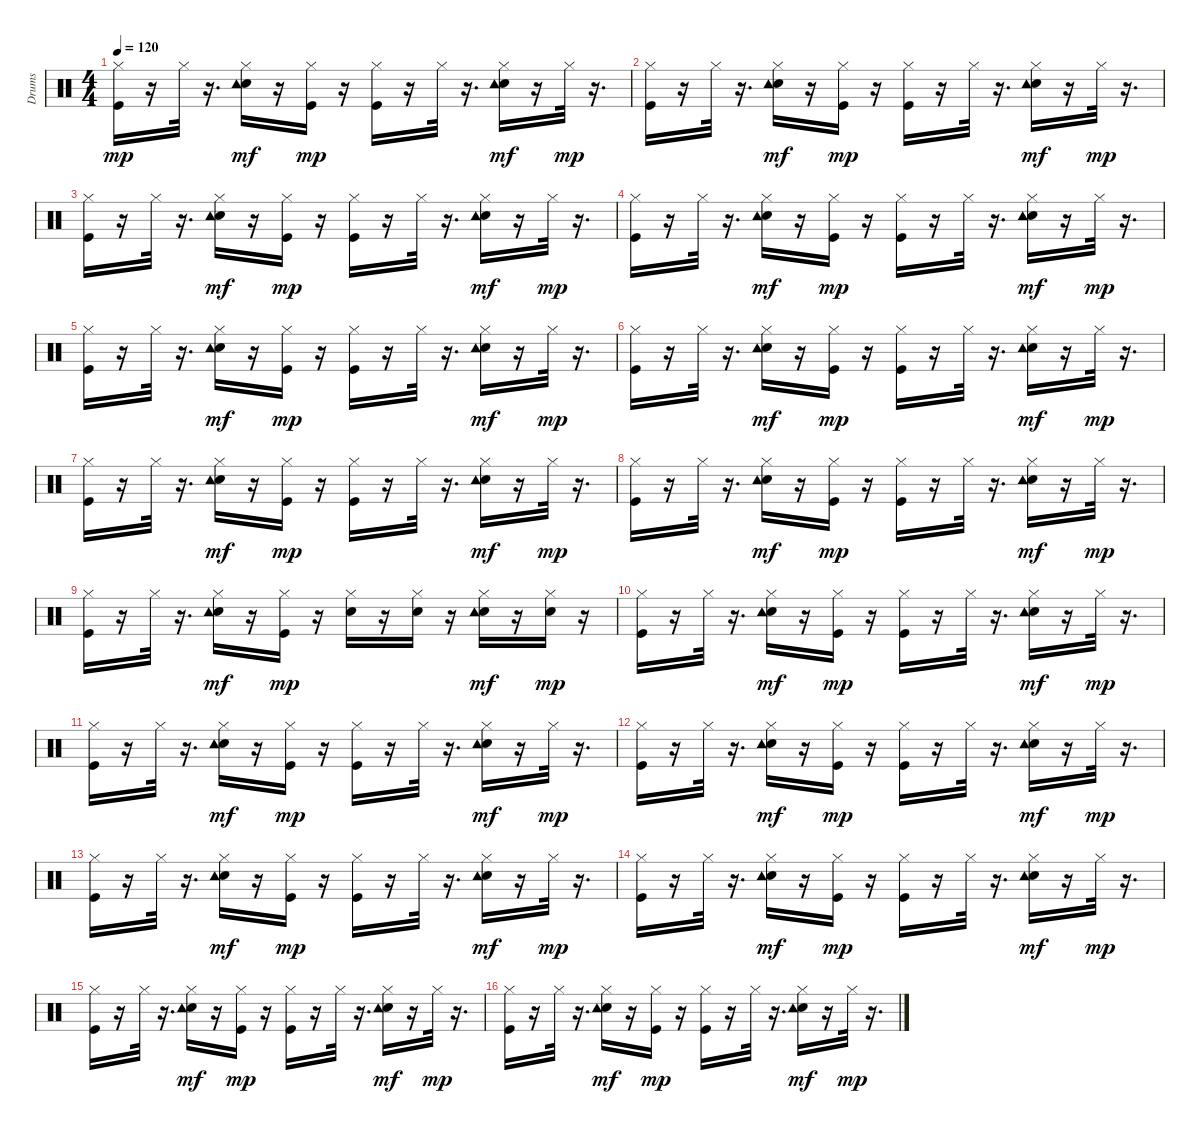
\track ("Drums" "Drums") {instrument percussion}
\staff {score}
\articulation defaults
\ts (4 4)
\tempo 120
\clef neutral
\ks c
("Kick (hit)" "Hi-Hat (closed)").16{dy mp} r.16 "Hi-Hat (closed)".32 r.16{d} ("Electric Snare (hit)" "Hi-Hat (closed)" "Tambourine (hit)").16{dy mf} r.16 ("Kick (hit)" "Hi-Hat (closed)").16{dy mp} r.16 ("Kick (hit)" "Hi-Hat (closed)").16 r.16 "Hi-Hat (closed)".32 r.16{d} ("Electric Snare (hit)" "Hi-Hat (closed)" "Tambourine (hit)").16{dy mf} r.16 "Hi-Hat (closed)".32{dy mp} r.16{d} |
("Kick (hit)" "Hi-Hat (closed)").16 r.16 "Hi-Hat (closed)".32 r.16{d} ("Electric Snare (hit)" "Hi-Hat (closed)" "Tambourine (hit)").16{dy mf} r.16 ("Kick (hit)" "Hi-Hat (closed)").16{dy mp} r.16 ("Kick (hit)" "Hi-Hat (closed)").16 r.16 "Hi-Hat (closed)".32 r.16{d} ("Electric Snare (hit)" "Hi-Hat (closed)" "Tambourine (hit)").16{dy mf} r.16 "Hi-Hat (closed)".32{dy mp} r.16{d} |
("Kick (hit)" "Hi-Hat (closed)").16 r.16 "Hi-Hat (closed)".32 r.16{d} ("Electric Snare (hit)" "Hi-Hat (closed)" "Tambourine (hit)").16{dy mf} r.16 ("Kick (hit)" "Hi-Hat (closed)").16{dy mp} r.16 ("Kick (hit)" "Hi-Hat (closed)").16 r.16 "Hi-Hat (closed)".32 r.16{d} ("Electric Snare (hit)" "Hi-Hat (closed)" "Tambourine (hit)").16{dy mf} r.16 "Hi-Hat (closed)".32{dy mp} r.16{d} |
("Kick (hit)" "Hi-Hat (closed)").16 r.16 "Hi-Hat (closed)".32 r.16{d} ("Electric Snare (hit)" "Hi-Hat (closed)" "Tambourine (hit)").16{dy mf} r.16 ("Kick (hit)" "Hi-Hat (closed)").16{dy mp} r.16 ("Kick (hit)" "Hi-Hat (closed)").16 r.16 "Hi-Hat (closed)".32 r.16{d} ("Electric Snare (hit)" "Hi-Hat (closed)" "Tambourine (hit)").16{dy mf} r.16 "Hi-Hat (closed)".32{dy mp} r.16{d} |
("Kick (hit)" "Hi-Hat (closed)").16 r.16 "Hi-Hat (closed)".32 r.16{d} ("Electric Snare (hit)" "Hi-Hat (closed)" "Tambourine (hit)").16{dy mf} r.16 ("Kick (hit)" "Hi-Hat (closed)").16{dy mp} r.16 ("Kick (hit)" "Hi-Hat (closed)").16 r.16 "Hi-Hat (closed)".32 r.16{d} ("Electric Snare (hit)" "Hi-Hat (closed)" "Tambourine (hit)").16{dy mf} r.16 "Hi-Hat (closed)".32{dy mp} r.16{d} |
("Kick (hit)" "Hi-Hat (closed)").16 r.16 "Hi-Hat (closed)".32 r.16{d} ("Electric Snare (hit)" "Hi-Hat (closed)" "Tambourine (hit)").16{dy mf} r.16 ("Kick (hit)" "Hi-Hat (closed)").16{dy mp} r.16 ("Kick (hit)" "Hi-Hat (closed)").16 r.16 "Hi-Hat (closed)".32 r.16{d} ("Electric Snare (hit)" "Hi-Hat (closed)" "Tambourine (hit)").16{dy mf} r.16 "Hi-Hat (closed)".32{dy mp} r.16{d} |
("Kick (hit)" "Hi-Hat (closed)").16 r.16 "Hi-Hat (closed)".32 r.16{d} ("Electric Snare (hit)" "Hi-Hat (closed)" "Tambourine (hit)").16{dy mf} r.16 ("Kick (hit)" "Hi-Hat (closed)").16{dy mp} r.16 ("Kick (hit)" "Hi-Hat (closed)").16 r.16 "Hi-Hat (closed)".32 r.16{d} ("Electric Snare (hit)" "Hi-Hat (closed)" "Tambourine (hit)").16{dy mf} r.16 "Hi-Hat (closed)".32{dy mp} r.16{d} |
("Kick (hit)" "Hi-Hat (closed)").16 r.16 "Hi-Hat (closed)".32 r.16{d} ("Electric Snare (hit)" "Hi-Hat (closed)" "Tambourine (hit)").16{dy mf} r.16 ("Kick (hit)" "Hi-Hat (closed)").16{dy mp} r.16 ("Kick (hit)" "Hi-Hat (closed)").16 r.16 "Hi-Hat (closed)".32 r.16{d} ("Electric Snare (hit)" "Hi-Hat (closed)" "Tambourine (hit)").16{dy mf} r.16 "Hi-Hat (closed)".32{dy mp} r.16{d} |
("Kick (hit)" "Hi-Hat (closed)").16 r.16 "Hi-Hat (closed)".32 r.16{d} ("Electric Snare (hit)" "Hi-Hat (closed)" "Tambourine (hit)").16{dy mf} r.16 ("Kick (hit)" "Hi-Hat (closed)").16{dy mp} r.16 ("Electric Snare (hit)" "Hi-Hat (closed)").16 r.16 ("Electric Snare (hit)" "Hi-Hat (closed)").16 r.16 ("Electric Snare (hit)" "Hi-Hat (closed)" "Tambourine (hit)").16{dy mf} r.16 ("Electric Snare (hit)" "Hi-Hat (closed)").16{dy mp} r.16 |
("Kick (hit)" "Hi-Hat (closed)").16 r.16 "Hi-Hat (closed)".32 r.16{d} ("Electric Snare (hit)" "Hi-Hat (closed)" "Tambourine (hit)").16{dy mf} r.16 ("Kick (hit)" "Hi-Hat (closed)").16{dy mp} r.16 ("Kick (hit)" "Hi-Hat (closed)").16 r.16 "Hi-Hat (closed)".32 r.16{d} ("Electric Snare (hit)" "Hi-Hat (closed)" "Tambourine (hit)").16{dy mf} r.16 "Hi-Hat (closed)".32{dy mp} r.16{d} |
("Kick (hit)" "Hi-Hat (closed)").16 r.16 "Hi-Hat (closed)".32 r.16{d} ("Electric Snare (hit)" "Hi-Hat (closed)" "Tambourine (hit)").16{dy mf} r.16 ("Kick (hit)" "Hi-Hat (closed)").16{dy mp} r.16 ("Kick (hit)" "Hi-Hat (closed)").16 r.16 "Hi-Hat (closed)".32 r.16{d} ("Electric Snare (hit)" "Hi-Hat (closed)" "Tambourine (hit)").16{dy mf} r.16 "Hi-Hat (closed)".32{dy mp} r.16{d} |
("Kick (hit)" "Hi-Hat (closed)").16 r.16 "Hi-Hat (closed)".32 r.16{d} ("Electric Snare (hit)" "Hi-Hat (closed)" "Tambourine (hit)").16{dy mf} r.16 ("Kick (hit)" "Hi-Hat (closed)").16{dy mp} r.16 ("Kick (hit)" "Hi-Hat (closed)").16 r.16 "Hi-Hat (closed)".32 r.16{d} ("Electric Snare (hit)" "Hi-Hat (closed)" "Tambourine (hit)").16{dy mf} r.16 "Hi-Hat (closed)".32{dy mp} r.16{d} |
("Kick (hit)" "Hi-Hat (closed)").16 r.16 "Hi-Hat (closed)".32 r.16{d} ("Electric Snare (hit)" "Hi-Hat (closed)" "Tambourine (hit)").16{dy mf} r.16 ("Kick (hit)" "Hi-Hat (closed)").16{dy mp} r.16 ("Kick (hit)" "Hi-Hat (closed)").16 r.16 "Hi-Hat (closed)".32 r.16{d} ("Electric Snare (hit)" "Hi-Hat (closed)" "Tambourine (hit)").16{dy mf} r.16 "Hi-Hat (closed)".32{dy mp} r.16{d} |
("Kick (hit)" "Hi-Hat (closed)").16 r.16 "Hi-Hat (closed)".32 r.16{d} ("Electric Snare (hit)" "Hi-Hat (closed)" "Tambourine (hit)").16{dy mf} r.16 ("Kick (hit)" "Hi-Hat (closed)").16{dy mp} r.16 ("Kick (hit)" "Hi-Hat (closed)").16 r.16 "Hi-Hat (closed)".32 r.16{d} ("Electric Snare (hit)" "Hi-Hat (closed)" "Tambourine (hit)").16{dy mf} r.16 "Hi-Hat (closed)".32{dy mp} r.16{d} |
("Kick (hit)" "Hi-Hat (closed)").16 r.16 "Hi-Hat (closed)".32 r.16{d} ("Electric Snare (hit)" "Hi-Hat (closed)" "Tambourine (hit)").16{dy mf} r.16 ("Kick (hit)" "Hi-Hat (closed)").16{dy mp} r.16 ("Kick (hit)" "Hi-Hat (closed)").16 r.16 "Hi-Hat (closed)".32 r.16{d} ("Electric Snare (hit)" "Hi-Hat (closed)" "Tambourine (hit)").16{dy mf} r.16 "Hi-Hat (closed)".32{dy mp} r.16{d} |
("Kick (hit)" "Hi-Hat (closed)").16 r.16 "Hi-Hat (closed)".32 r.16{d} ("Electric Snare (hit)" "Hi-Hat (closed)" "Tambourine (hit)").16{dy mf} r.16 ("Kick (hit)" "Hi-Hat (closed)").16{dy mp} r.16 ("Kick (hit)" "Hi-Hat (closed)").16 r.16 "Hi-Hat (closed)".32 r.16{d} ("Electric Snare (hit)" "Hi-Hat (closed)" "Tambourine (hit)").16{dy mf} r.16 "Hi-Hat (closed)".32{dy mp} r.16{d}
